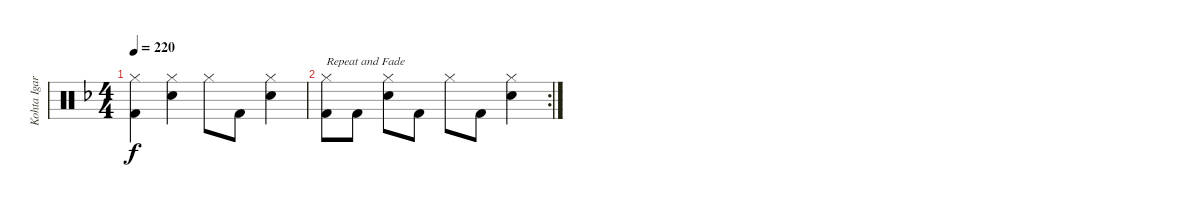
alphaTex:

\track ("Kohta Igarashi" "Kohta Igar") {instrument percussion}
\staff {score}
\articulation defaults
\ts (4 4)
\tempo 220
\clef neutral
\ks f
("Hi-Hat (closed)" "Kick (hit) 2").4{dy f} ("Hi-Hat (closed)" "Electric Snare (hit)").4 "Hi-Hat (closed)".8 "Kick (hit) 2".8 ("Hi-Hat (closed)" "Electric Snare (hit)").4 |
\rc 2
("Hi-Hat (closed)" "Kick (hit) 2").8{txt "Repeat and Fade"} "Kick (hit) 2".8 ("Hi-Hat (closed)" "Electric Snare (hit)").8 "Kick (hit) 2".8 "Hi-Hat (closed)".8 "Kick (hit) 2".8 ("Hi-Hat (closed)" "Electric Snare (hit)").4
